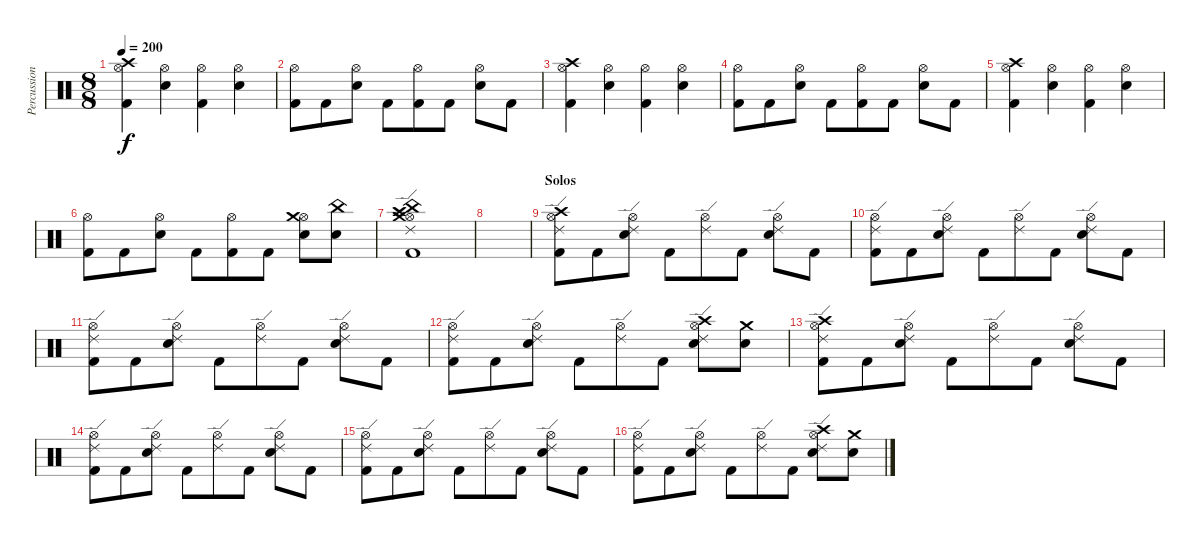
\track ("Percussions" "Percussion") {instrument percussion}
\staff {score}
\articulation defaults
\ts (8 8)
\tempo 200
\clef neutral
\ks c
("Crash high (hit)" "Hi-Hat (open)" "Kick (hit) 2").4{dy f} ("Hi-Hat (open)" "Electric Snare (hit)").4 ("Hi-Hat (open)" "Kick (hit) 2").4 ("Hi-Hat (open)" "Electric Snare (hit)").4 |
("Hi-Hat (open)" "Kick (hit) 2").8 "Kick (hit) 2".8 ("Hi-Hat (open)" "Electric Snare (hit)").8 "Kick (hit) 2".8 ("Hi-Hat (open)" "Kick (hit) 2").8 "Kick (hit) 2".8 ("Hi-Hat (open)" "Electric Snare (hit)").8 "Kick (hit) 2".8 |
("Crash high (hit)" "Hi-Hat (open)" "Kick (hit) 2").4 ("Hi-Hat (open)" "Electric Snare (hit)").4 ("Hi-Hat (open)" "Kick (hit) 2").4 ("Hi-Hat (open)" "Electric Snare (hit)").4 |
("Hi-Hat (open)" "Kick (hit) 2").8 "Kick (hit) 2".8 ("Hi-Hat (open)" "Electric Snare (hit)").8 "Kick (hit) 2".8 ("Hi-Hat (open)" "Kick (hit) 2").8 "Kick (hit) 2".8 ("Hi-Hat (open)" "Electric Snare (hit)").8 "Kick (hit) 2".8 |
("Crash high (hit)" "Hi-Hat (open)" "Kick (hit) 2").4 ("Hi-Hat (open)" "Electric Snare (hit)").4 ("Hi-Hat (open)" "Kick (hit) 2").4 ("Hi-Hat (open)" "Electric Snare (hit)").4 |
("Hi-Hat (open)" "Kick (hit) 2").8 "Kick (hit) 2".8 ("Hi-Hat (open)" "Electric Snare (hit)").8 "Kick (hit) 2".8 ("Hi-Hat (open)" "Kick (hit) 2").8 "Kick (hit) 2".8 ("Hi-Hat (open)" "Crash medium (hit)" "Electric Snare (hit)").8 ("China (hit)" "Electric Snare (hit)").8 |
("Hi-Hat (open)" "China (hit)" "Crash medium (hit)" "Ride (edge) 2" "Crash high (hit)" "Kick (hit) 2").1 |
|
\section ("" "Solos")
("Ride (edge) 2" "Crash high (hit)" "Hi-Hat (open)" "Kick (hit) 2").8 "Kick (hit) 2".8 ("Ride (edge) 2" "Hi-Hat (open)" "Electric Snare (hit)").8 "Kick (hit) 2".8 ("Ride (edge) 2" "Hi-Hat (open)").8 "Kick (hit) 2".8 ("Ride (edge) 2" "Hi-Hat (open)" "Electric Snare (hit)").8 "Kick (hit) 2".8 |
("Ride (edge) 2" "Hi-Hat (open)" "Kick (hit) 2").8 "Kick (hit) 2".8 ("Ride (edge) 2" "Hi-Hat (open)" "Electric Snare (hit)").8 "Kick (hit) 2".8 ("Ride (edge) 2" "Hi-Hat (open)").8 "Kick (hit) 2".8 ("Ride (edge) 2" "Hi-Hat (open)" "Electric Snare (hit)").8 "Kick (hit) 2".8 |
("Ride (edge) 2" "Hi-Hat (open)" "Kick (hit) 2").8 "Kick (hit) 2".8 ("Ride (edge) 2" "Hi-Hat (open)" "Electric Snare (hit)").8 "Kick (hit) 2".8 ("Ride (edge) 2" "Hi-Hat (open)").8 "Kick (hit) 2".8 ("Ride (edge) 2" "Hi-Hat (open)" "Electric Snare (hit)").8 "Kick (hit) 2".8 |
("Ride (edge) 2" "Hi-Hat (open)" "Kick (hit) 2").8 "Kick (hit) 2".8 ("Ride (edge) 2" "Hi-Hat (open)" "Electric Snare (hit)").8 "Kick (hit) 2".8 ("Ride (edge) 2" "Hi-Hat (open)").8 "Kick (hit) 2".8 ("Ride (edge) 2" "Crash high (hit)" "Hi-Hat (open)" "Electric Snare (hit)").8 ("Crash medium (hit)" "Electric Snare (hit)").8 |
("Ride (edge) 2" "Crash high (hit)" "Hi-Hat (open)" "Kick (hit) 2").8 "Kick (hit) 2".8 ("Ride (edge) 2" "Hi-Hat (open)" "Electric Snare (hit)").8 "Kick (hit) 2".8 ("Ride (edge) 2" "Hi-Hat (open)").8 "Kick (hit) 2".8 ("Ride (edge) 2" "Hi-Hat (open)" "Electric Snare (hit)").8 "Kick (hit) 2".8 |
("Ride (edge) 2" "Hi-Hat (open)" "Kick (hit) 2").8 "Kick (hit) 2".8 ("Ride (edge) 2" "Hi-Hat (open)" "Electric Snare (hit)").8 "Kick (hit) 2".8 ("Ride (edge) 2" "Hi-Hat (open)").8 "Kick (hit) 2".8 ("Ride (edge) 2" "Hi-Hat (open)" "Electric Snare (hit)").8 "Kick (hit) 2".8 |
("Ride (edge) 2" "Hi-Hat (open)" "Kick (hit) 2").8 "Kick (hit) 2".8 ("Ride (edge) 2" "Hi-Hat (open)" "Electric Snare (hit)").8 "Kick (hit) 2".8 ("Ride (edge) 2" "Hi-Hat (open)").8 "Kick (hit) 2".8 ("Ride (edge) 2" "Hi-Hat (open)" "Electric Snare (hit)").8 "Kick (hit) 2".8 |
("Ride (edge) 2" "Hi-Hat (open)" "Kick (hit) 2").8 "Kick (hit) 2".8 ("Ride (edge) 2" "Hi-Hat (open)" "Electric Snare (hit)").8 "Kick (hit) 2".8 ("Ride (edge) 2" "Hi-Hat (open)").8 "Kick (hit) 2".8 ("Ride (edge) 2" "Crash high (hit)" "Hi-Hat (open)" "Electric Snare (hit)").8 ("Crash medium (hit)" "Electric Snare (hit)").8
